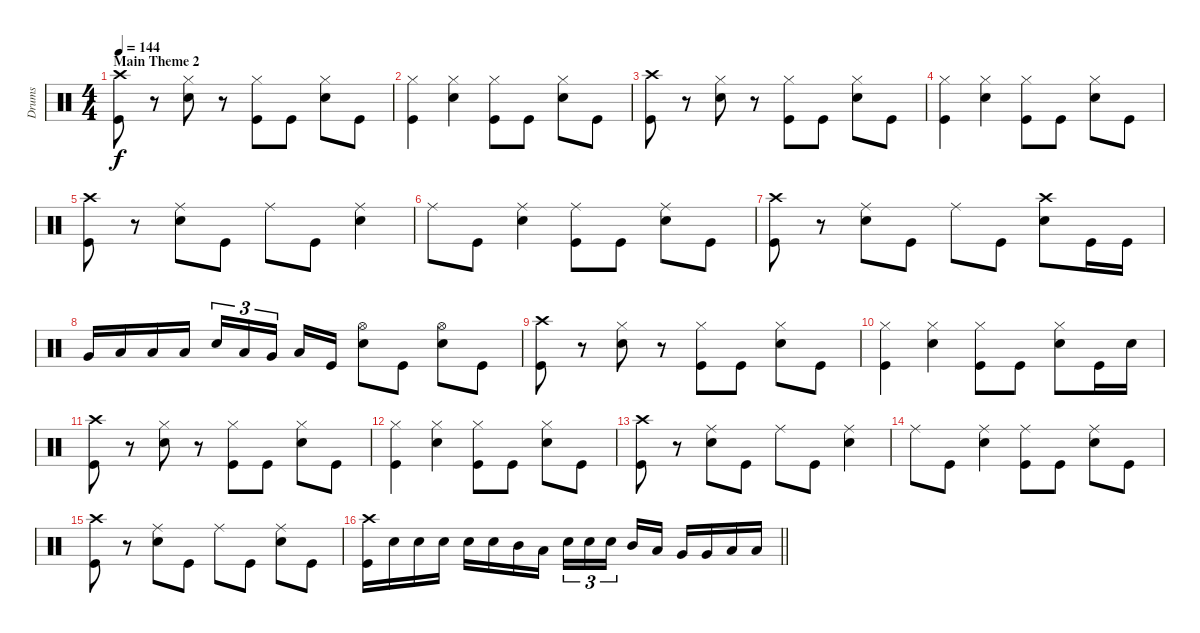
\track ("Drums" "Drums") {instrument percussion}
\staff {score}
\articulation defaults
\ts (4 4)
\section ("" "Main Theme 2")
\tempo 144
\clef neutral
\ks c
("Crash high (hit)" "Kick (hit)").8{dy f} r.8 ("Hi-Hat (closed)" "Electric Snare (hit)").8 r.8 ("Hi-Hat (closed)" "Kick (hit)").8 "Kick (hit)".8 ("Hi-Hat (closed)" "Electric Snare (hit)").8 "Kick (hit)".8 |
("Hi-Hat (closed)" "Kick (hit)").4 ("Hi-Hat (closed)" "Electric Snare (hit)").4 ("Hi-Hat (closed)" "Kick (hit)").8 "Kick (hit)".8 ("Hi-Hat (closed)" "Electric Snare (hit)").8 "Kick (hit)".8 |
("Crash high (hit)" "Kick (hit)").8 r.8 ("Hi-Hat (closed)" "Electric Snare (hit)").8 r.8 ("Hi-Hat (closed)" "Kick (hit)").8 "Kick (hit)".8 ("Hi-Hat (closed)" "Electric Snare (hit)").8 "Kick (hit)".8 |
("Hi-Hat (closed)" "Kick (hit)").4 ("Hi-Hat (closed)" "Electric Snare (hit)").4 ("Hi-Hat (closed)" "Kick (hit)").8 "Kick (hit)".8 ("Hi-Hat (closed)" "Electric Snare (hit)").8 "Kick (hit)".8 |
("Crash high (hit)" "Kick (hit)").8 r.8 ("Ride (middle)" "Electric Snare (hit)").8 "Kick (hit)".8 "Ride (middle)".8 "Kick (hit)".8 ("Ride (middle)" "Electric Snare (hit)").4 |
"Ride (middle)".8 "Kick (hit)".8 ("Ride (middle)" "Electric Snare (hit)").4 ("Ride (middle)" "Kick (hit)").8 "Kick (hit)".8 ("Ride (middle)" "Electric Snare (hit)").8 "Kick (hit)".8 |
("Crash high (hit)" "Kick (hit)").8 r.8 ("Ride (middle)" "Electric Snare (hit)").8 "Kick (hit)".8 "Ride (middle)".8 "Kick (hit)".8 ("Crash high (hit)" "Electric Snare (hit)").8 "Kick (hit)".16 "Kick (hit)".16 |
"Very Low Tom (hit)".16 "Low Floor Tom (hit)".16 "Low Floor Tom (hit)".16 "Low Floor Tom (hit)".16 "Electric Snare (hit)".16{tu (3 2)} "Low Tom (hit)".16{tu (3 2)} "Very Low Tom (hit)".16{tu (3 2) beam splitsecondary} "Low Floor Tom (hit)".16 "Kick (hit)".16 ("Hi-Hat (open)" "Electric Snare (hit)").8 "Kick (hit)".8 ("Hi-Hat (open)" "Electric Snare (hit)").8 "Kick (hit)".8 |
("Crash high (hit)" "Kick (hit)").8 r.8 ("Hi-Hat (closed)" "Electric Snare (hit)").8 r.8 ("Hi-Hat (closed)" "Kick (hit)").8 "Kick (hit)".8 ("Hi-Hat (closed)" "Electric Snare (hit)").8 "Kick (hit)".8 |
("Hi-Hat (closed)" "Kick (hit)").4 ("Hi-Hat (closed)" "Electric Snare (hit)").4 ("Hi-Hat (closed)" "Kick (hit)").8 "Kick (hit)".8 ("Hi-Hat (closed)" "Electric Snare (hit)").8 "Kick (hit)".16 "Electric Snare (hit)".16 |
("Crash high (hit)" "Kick (hit)").8 r.8 ("Hi-Hat (closed)" "Electric Snare (hit)").8 r.8 ("Hi-Hat (closed)" "Kick (hit)").8 "Kick (hit)".8 ("Hi-Hat (closed)" "Electric Snare (hit)").8 "Kick (hit)".8 |
("Hi-Hat (closed)" "Kick (hit)").4 ("Hi-Hat (closed)" "Electric Snare (hit)").4 ("Hi-Hat (closed)" "Kick (hit)").8 "Kick (hit)".8 ("Hi-Hat (closed)" "Electric Snare (hit)").8 "Kick (hit)".8 |
("Crash high (hit)" "Kick (hit)").8 r.8 ("Ride (middle)" "Electric Snare (hit)").8 "Kick (hit)".8 "Ride (middle)".8 "Kick (hit)".8 ("Ride (middle)" "Electric Snare (hit)").4 |
"Ride (middle)".8 "Kick (hit)".8 ("Ride (middle)" "Electric Snare (hit)").4 ("Ride (middle)" "Kick (hit)").8 "Kick (hit)".8 ("Ride (middle)" "Electric Snare (hit)").8 "Kick (hit)".8 |
("Crash high (hit)" "Kick (hit)").8 r.8 ("Ride (middle)" "Electric Snare (hit)").8 "Kick (hit)".8 "Ride (middle)".8 "Kick (hit)".8 ("Ride (middle)" "Electric Snare (hit)").8 "Kick (hit)".8 |
\barLineRight lightlight
("Crash high (hit)" "Kick (hit)").16 "Electric Snare (hit)".16 "Electric Snare (hit)".16 "Electric Snare (hit)".16 "Electric Snare (hit)".16 "Electric Snare (hit)".16 "Mid Tom (hit)".16 "Low Tom (hit)".16 "Electric Snare (hit)".16{tu (3 2)} "Electric Snare (hit)".16{tu (3 2)} "Electric Snare (hit)".16{tu (3 2) beam splitsecondary} "Mid Tom (hit)".16 "Low Tom (hit)".16 "Very Low Tom (hit)".16 "Very Low Tom (hit)".16 "Low Floor Tom (hit)".16 "Low Floor Tom (hit)".16
